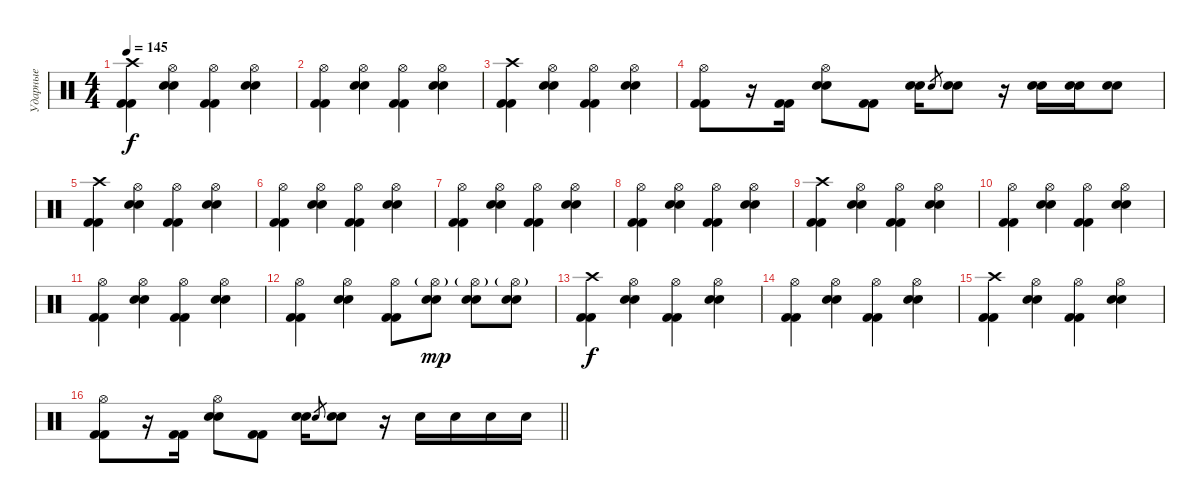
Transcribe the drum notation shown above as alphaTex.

\track ("Ударные" "Ударные") {instrument percussion}
\staff {score}
\articulation defaults
\ts (4 4)
\tempo 145
\clef neutral
\ks c
("Crash high (hit)" "Kick (hit) 2" "Kick (hit) 2").4{dy f} ("Hi-Hat (open)" "Electric Snare (hit)" "Electric Snare (hit)").4 ("Hi-Hat (open)" "Kick (hit) 2" "Kick (hit) 2").4 ("Hi-Hat (open)" "Electric Snare (hit)" "Electric Snare (hit)").4 |
("Hi-Hat (open)" "Kick (hit) 2" "Kick (hit) 2").4 ("Hi-Hat (open)" "Electric Snare (hit)" "Electric Snare (hit)").4 ("Hi-Hat (open)" "Kick (hit) 2" "Kick (hit) 2").4 ("Hi-Hat (open)" "Electric Snare (hit)" "Electric Snare (hit)").4 |
("Crash high (hit)" "Kick (hit) 2" "Kick (hit) 2").4 ("Hi-Hat (open)" "Electric Snare (hit)" "Electric Snare (hit)").4 ("Hi-Hat (open)" "Kick (hit) 2" "Kick (hit) 2").4 ("Hi-Hat (open)" "Electric Snare (hit)" "Electric Snare (hit)").4 |
("Hi-Hat (open)" "Kick (hit) 2" "Kick (hit) 2").8 r.16 ("Kick (hit) 2" "Kick (hit) 2").16 ("Hi-Hat (open)" "Electric Snare (hit)" "Electric Snare (hit)").8 ("Kick (hit) 2" "Kick (hit) 2").8 ("Electric Snare (hit)" "Electric Snare (hit)").16 "Electric Snare (hit)".8{gr} ("Electric Snare (hit)" "Electric Snare (hit)").8 r.16 ("Electric Snare (hit)" "Electric Snare (hit)").16 ("Electric Snare (hit)" "Electric Snare (hit)").16 ("Electric Snare (hit)" "Electric Snare (hit)").8 |
("Crash high (hit)" "Kick (hit) 2" "Kick (hit) 2").4 ("Hi-Hat (open)" "Electric Snare (hit)" "Electric Snare (hit)").4 ("Hi-Hat (open)" "Kick (hit) 2" "Kick (hit) 2").4 ("Hi-Hat (open)" "Electric Snare (hit)" "Electric Snare (hit)").4 |
("Hi-Hat (open)" "Kick (hit) 2" "Kick (hit) 2").4 ("Hi-Hat (open)" "Electric Snare (hit)" "Electric Snare (hit)").4 ("Hi-Hat (open)" "Kick (hit) 2" "Kick (hit) 2").4 ("Hi-Hat (open)" "Electric Snare (hit)" "Electric Snare (hit)").4 |
("Hi-Hat (open)" "Kick (hit) 2" "Kick (hit) 2").4 ("Hi-Hat (open)" "Electric Snare (hit)" "Electric Snare (hit)").4 ("Hi-Hat (open)" "Kick (hit) 2" "Kick (hit) 2").4 ("Hi-Hat (open)" "Electric Snare (hit)" "Electric Snare (hit)").4 |
("Hi-Hat (open)" "Kick (hit) 2" "Kick (hit) 2").4 ("Hi-Hat (open)" "Electric Snare (hit)" "Electric Snare (hit)").4 ("Hi-Hat (open)" "Kick (hit) 2" "Kick (hit) 2").4 ("Hi-Hat (open)" "Electric Snare (hit)" "Electric Snare (hit)").4 |
("Crash high (hit)" "Kick (hit) 2" "Kick (hit) 2").4 ("Hi-Hat (open)" "Electric Snare (hit)" "Electric Snare (hit)").4 ("Hi-Hat (open)" "Kick (hit) 2" "Kick (hit) 2").4 ("Hi-Hat (open)" "Electric Snare (hit)" "Electric Snare (hit)").4 |
("Hi-Hat (open)" "Kick (hit) 2" "Kick (hit) 2").4 ("Hi-Hat (open)" "Electric Snare (hit)" "Electric Snare (hit)").4 ("Hi-Hat (open)" "Kick (hit) 2" "Kick (hit) 2").4 ("Hi-Hat (open)" "Electric Snare (hit)" "Electric Snare (hit)").4 |
("Hi-Hat (open)" "Kick (hit) 2" "Kick (hit) 2").4 ("Hi-Hat (open)" "Electric Snare (hit)" "Electric Snare (hit)").4 ("Hi-Hat (open)" "Kick (hit) 2" "Kick (hit) 2").4 ("Hi-Hat (open)" "Electric Snare (hit)" "Electric Snare (hit)").4 |
("Hi-Hat (open)" "Kick (hit) 2" "Kick (hit) 2").4 ("Hi-Hat (open)" "Electric Snare (hit)" "Electric Snare (hit)").4 ("Hi-Hat (open)" "Kick (hit) 2" "Kick (hit) 2").8 ("Hi-Hat (open)"{g} "Electric Snare (hit)" "Electric Snare (hit)").8{dy mp} ("Hi-Hat (open)"{g} "Electric Snare (hit)" "Electric Snare (hit)").8 ("Hi-Hat (open)"{g} "Electric Snare (hit)" "Electric Snare (hit)").8 |
("Crash high (hit)" "Kick (hit) 2" "Kick (hit) 2").4{dy f} ("Hi-Hat (open)" "Electric Snare (hit)" "Electric Snare (hit)").4 ("Hi-Hat (open)" "Kick (hit) 2" "Kick (hit) 2").4 ("Hi-Hat (open)" "Electric Snare (hit)" "Electric Snare (hit)").4 |
("Hi-Hat (open)" "Kick (hit) 2" "Kick (hit) 2").4 ("Hi-Hat (open)" "Electric Snare (hit)" "Electric Snare (hit)").4 ("Hi-Hat (open)" "Kick (hit) 2" "Kick (hit) 2").4 ("Hi-Hat (open)" "Electric Snare (hit)" "Electric Snare (hit)").4 |
("Crash high (hit)" "Kick (hit) 2" "Kick (hit) 2").4 ("Hi-Hat (open)" "Electric Snare (hit)" "Electric Snare (hit)").4 ("Hi-Hat (open)" "Kick (hit) 2" "Kick (hit) 2").4 ("Hi-Hat (open)" "Electric Snare (hit)" "Electric Snare (hit)").4 |
\barLineRight lightlight
("Hi-Hat (open)" "Kick (hit) 2" "Kick (hit) 2").8 r.16 ("Kick (hit) 2" "Kick (hit) 2").16 ("Hi-Hat (open)" "Electric Snare (hit)" "Electric Snare (hit)").8 ("Kick (hit) 2" "Kick (hit) 2").8 ("Electric Snare (hit)" "Electric Snare (hit)").16 "Electric Snare (hit)".8{gr} ("Electric Snare (hit)" "Electric Snare (hit)").8 r.16 "Electric Snare (hit)".16 "Electric Snare (hit)".16 "Electric Snare (hit)".16 "Electric Snare (hit)".16
